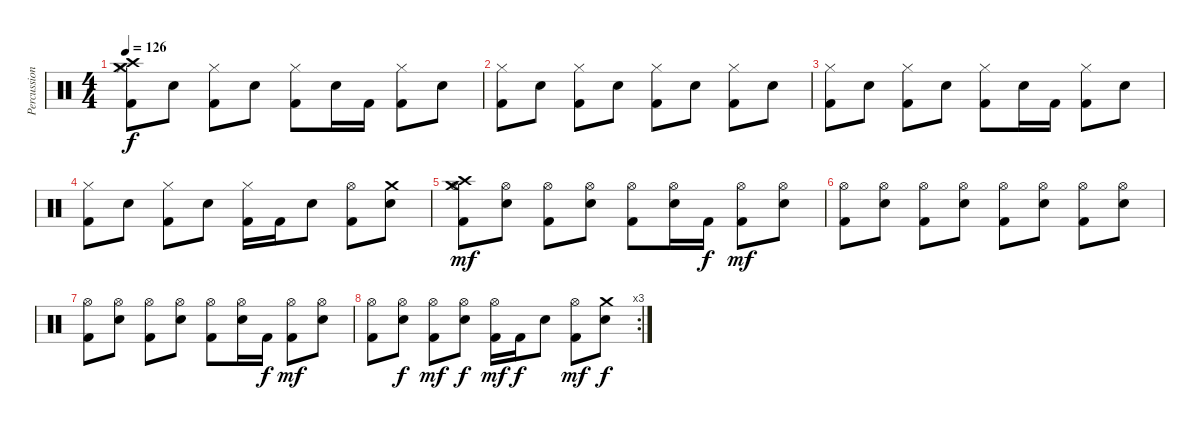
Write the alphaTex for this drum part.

\track ("Percussion" "Percussion") {instrument percussion}
\staff {score}
\articulation defaults
\ts (4 4)
\tempo 126
\clef neutral
\ks c
("Kick (hit) 2" "Crash medium (hit)" "Hi-Hat (closed)" "Crash high (hit)").8{dy f} "Snare (hit) 2".8 ("Kick (hit) 2" "Hi-Hat (closed)").8 "Snare (hit) 2".8 ("Kick (hit) 2" "Hi-Hat (closed)").8 "Snare (hit) 2".16 "Kick (hit) 2".16 ("Kick (hit) 2" "Hi-Hat (closed)").8 "Snare (hit) 2".8 |
("Kick (hit) 2" "Hi-Hat (closed)").8 "Snare (hit) 2".8 ("Kick (hit) 2" "Hi-Hat (closed)").8 "Snare (hit) 2".8 ("Kick (hit) 2" "Hi-Hat (closed)").8 "Snare (hit) 2".8 ("Kick (hit) 2" "Hi-Hat (closed)").8 "Snare (hit) 2".8 |
("Kick (hit) 2" "Hi-Hat (closed)").8 "Snare (hit) 2".8 ("Kick (hit) 2" "Hi-Hat (closed)").8 "Snare (hit) 2".8 ("Kick (hit) 2" "Hi-Hat (closed)").8 "Snare (hit) 2".16 "Kick (hit) 2".16 ("Kick (hit) 2" "Hi-Hat (closed)").8 "Snare (hit) 2".8 |
("Kick (hit) 2" "Hi-Hat (closed)").8 "Snare (hit) 2".8 ("Kick (hit) 2" "Hi-Hat (closed)").8 "Snare (hit) 2".8 ("Kick (hit) 2" "Hi-Hat (closed)").16 "Kick (hit) 2".16 "Snare (hit) 2".8 ("Kick (hit) 2" "Hi-Hat (open)").8 ("Snare (hit) 2" "Crash medium (hit)").8 |
("Kick (hit) 2" "Crash medium (hit)" "Hi-Hat (open)" "Crash high (hit)").8{dy mf} ("Snare (hit) 2" "Hi-Hat (open)").8 ("Kick (hit) 2" "Hi-Hat (open)").8 ("Snare (hit) 2" "Hi-Hat (open)").8 ("Kick (hit) 2" "Hi-Hat (open)").8 ("Snare (hit) 2" "Hi-Hat (open)").16 "Kick (hit) 2".16{dy f} ("Kick (hit) 2" "Hi-Hat (open)").8{dy mf} ("Snare (hit) 2" "Hi-Hat (open)").8 |
("Kick (hit) 2" "Hi-Hat (open)").8 ("Snare (hit) 2" "Hi-Hat (open)").8 ("Kick (hit) 2" "Hi-Hat (open)").8 ("Snare (hit) 2" "Hi-Hat (open)").8 ("Kick (hit) 2" "Hi-Hat (open)").8 ("Snare (hit) 2" "Hi-Hat (open)").8 ("Kick (hit) 2" "Hi-Hat (open)").8 ("Snare (hit) 2" "Hi-Hat (open)").8 |
("Kick (hit) 2" "Hi-Hat (open)").8 ("Snare (hit) 2" "Hi-Hat (open)").8 ("Kick (hit) 2" "Hi-Hat (open)").8 ("Snare (hit) 2" "Hi-Hat (open)").8 ("Kick (hit) 2" "Hi-Hat (open)").8 ("Snare (hit) 2" "Hi-Hat (open)").16 "Kick (hit) 2".16{dy f} ("Kick (hit) 2" "Hi-Hat (open)").8{dy mf} ("Snare (hit) 2" "Hi-Hat (open)").8 |
\rc 3
("Kick (hit) 2" "Hi-Hat (open)").8 ("Snare (hit) 2" "Hi-Hat (open)").8{dy f} ("Kick (hit) 2" "Hi-Hat (open)").8{dy mf} ("Snare (hit) 2" "Hi-Hat (open)").8{dy f} ("Kick (hit) 2" "Hi-Hat (open)").16{dy mf} "Kick (hit) 2".16{dy f} "Snare (hit) 2".8 ("Kick (hit) 2" "Hi-Hat (open)").8{dy mf} ("Snare (hit) 2" "Crash medium (hit)").8{dy f}
